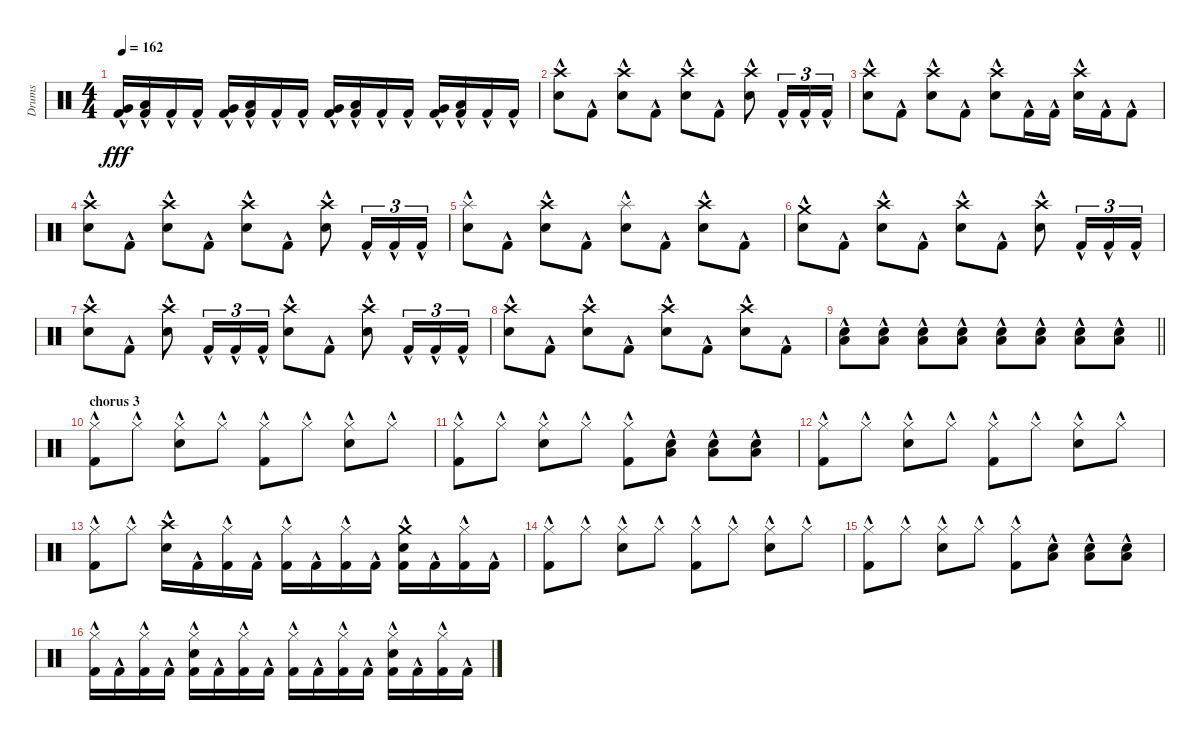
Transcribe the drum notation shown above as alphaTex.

\track ("Drums" "Drums") {instrument percussion}
\staff {score}
\articulation defaults
\ts (4 4)
\tempo 162
\clef neutral
\ks c
("Kick (hit) 2"{hac} "Very Low Tom (hit)"{hac}).16{dy fff} ("Kick (hit) 2"{hac} "Low Floor Tom (hit)"{hac}).16 "Kick (hit) 2"{hac}.16 "Kick (hit) 2"{hac}.16 ("Kick (hit) 2"{hac} "Very Low Tom (hit)"{hac}).16 ("Kick (hit) 2"{hac} "Low Floor Tom (hit)"{hac}).16 "Kick (hit) 2"{hac}.16 "Kick (hit) 2"{hac}.16 ("Kick (hit) 2"{hac} "Very Low Tom (hit)"{hac}).16 ("Kick (hit) 2"{hac} "Low Floor Tom (hit)"{hac}).16 "Kick (hit) 2"{hac}.16 "Kick (hit) 2"{hac}.16 ("Kick (hit) 2"{hac} "Very Low Tom (hit)"{hac}).16 ("Kick (hit) 2"{hac} "Low Floor Tom (hit)"{hac}).16 "Kick (hit) 2"{hac}.16 "Kick (hit) 2"{hac}.16 |
("Crash high (hit)"{hac} "Electric Snare (hit)"{hac}).8 "Kick (hit) 2"{hac}.8 ("Crash high (hit)"{hac} "Electric Snare (hit)"{hac}).8 "Kick (hit) 2"{hac}.8 ("Crash high (hit)"{hac} "Electric Snare (hit)"{hac}).8 "Kick (hit) 2"{hac}.8 ("Crash high (hit)"{hac} "Electric Snare (hit)"{hac}).8 "Kick (hit) 2"{hac}.16{tu (3 2)} "Kick (hit) 2"{hac}.16{tu (3 2)} "Kick (hit) 2"{hac}.16{tu (3 2)} |
("Crash high (hit)"{hac} "Electric Snare (hit)"{hac}).8 "Kick (hit) 2"{hac}.8 ("Crash high (hit)"{hac} "Electric Snare (hit)"{hac}).8 "Kick (hit) 2"{hac}.8 ("Crash high (hit)"{hac} "Electric Snare (hit)"{hac}).8 "Kick (hit) 2"{hac}.16 "Kick (hit) 2"{hac}.16 ("Crash high (hit)"{hac} "Electric Snare (hit)"{hac}).16 "Kick (hit) 2"{hac}.16 "Kick (hit) 2"{hac}.8 |
("Crash high (hit)"{hac} "Electric Snare (hit)"{hac}).8 "Kick (hit) 2"{hac}.8 ("Crash high (hit)"{hac} "Electric Snare (hit)"{hac}).8 "Kick (hit) 2"{hac}.8 ("Crash high (hit)"{hac} "Electric Snare (hit)"{hac}).8 "Kick (hit) 2"{hac}.8 ("Crash high (hit)"{hac} "Electric Snare (hit)"{hac}).8 "Kick (hit) 2"{hac}.16{tu (3 2)} "Kick (hit) 2"{hac}.16{tu (3 2)} "Kick (hit) 2"{hac}.16{tu (3 2)} |
("Electric Snare (hit)"{hac} "Splash (hit)"{hac}).8 "Kick (hit) 2"{hac}.8 ("Crash high (hit)"{hac} "Electric Snare (hit)"{hac}).8 "Kick (hit) 2"{hac}.8 ("Electric Snare (hit)"{hac} "Splash (hit)"{hac}).8 "Kick (hit) 2"{hac}.8 ("Crash high (hit)"{hac} "Electric Snare (hit)"{hac}).8 "Kick (hit) 2"{hac}.8 |
("Electric Snare (hit)"{hac} "Crash medium (hit)"{hac}).8 "Kick (hit) 2"{hac}.8 ("Crash high (hit)"{hac} "Electric Snare (hit)"{hac}).8 "Kick (hit) 2"{hac}.8 ("Crash high (hit)"{hac} "Electric Snare (hit)"{hac}).8 "Kick (hit) 2"{hac}.8 ("Crash high (hit)"{hac} "Electric Snare (hit)"{hac}).8 "Kick (hit) 2"{hac}.16{tu (3 2)} "Kick (hit) 2"{hac}.16{tu (3 2)} "Kick (hit) 2"{hac}.16{tu (3 2)} |
("Crash high (hit)"{hac} "Electric Snare (hit)"{hac}).8 "Kick (hit) 2"{hac}.8 ("Crash high (hit)"{hac} "Electric Snare (hit)"{hac}).8 "Kick (hit) 2"{hac}.16{tu (3 2)} "Kick (hit) 2"{hac}.16{tu (3 2)} "Kick (hit) 2"{hac}.16{tu (3 2)} ("Crash high (hit)"{hac} "Electric Snare (hit)"{hac}).8 "Kick (hit) 2"{hac}.8 ("Crash high (hit)"{hac} "Electric Snare (hit)"{hac}).8 "Kick (hit) 2"{hac}.16{tu (3 2)} "Kick (hit) 2"{hac}.16{tu (3 2)} "Kick (hit) 2"{hac}.16{tu (3 2)} |
("Crash high (hit)"{hac} "Electric Snare (hit)"{hac}).8 "Kick (hit) 2"{hac}.8 ("Crash high (hit)"{hac} "Electric Snare (hit)"{hac}).8 "Kick (hit) 2"{hac}.8 ("Crash high (hit)"{hac} "Electric Snare (hit)"{hac}).8 "Kick (hit) 2"{hac}.8 ("Crash high (hit)"{hac} "Electric Snare (hit)"{hac}).8 "Kick (hit) 2"{hac}.8 |
\barLineRight lightlight
("Electric Snare (hit)"{hac} "Low Floor Tom (hit)"{hac}).8 ("Electric Snare (hit)"{hac} "Low Floor Tom (hit)"{hac}).8 ("Electric Snare (hit)"{hac} "Low Floor Tom (hit)"{hac}).8 ("Electric Snare (hit)"{hac} "Low Floor Tom (hit)"{hac}).8 ("Electric Snare (hit)"{hac} "Low Floor Tom (hit)"{hac}).8 ("Electric Snare (hit)"{hac} "Low Floor Tom (hit)"{hac}).8 ("Electric Snare (hit)"{hac} "Low Floor Tom (hit)"{hac}).8 ("Electric Snare (hit)"{hac} "Low Floor Tom (hit)"{hac}).8 |
\section ("" "chorus 3")
("Hi-Hat (closed)"{hac} "Kick (hit) 2"{hac}).8 "Hi-Hat (closed)"{hac}.8 ("Hi-Hat (closed)"{hac} "Electric Snare (hit)"{hac}).8 "Hi-Hat (closed)"{hac}.8 ("Hi-Hat (closed)"{hac} "Kick (hit) 2"{hac}).8 "Hi-Hat (closed)"{hac}.8 ("Hi-Hat (closed)"{hac} "Electric Snare (hit)"{hac}).8 "Hi-Hat (closed)"{hac}.8 |
("Hi-Hat (closed)"{hac} "Kick (hit) 2"{hac}).8 "Hi-Hat (closed)"{hac}.8 ("Hi-Hat (closed)"{hac} "Electric Snare (hit)"{hac}).8 "Hi-Hat (closed)"{hac}.8 ("Hi-Hat (closed)"{hac} "Kick (hit) 2"{hac}).8 ("Electric Snare (hit)"{hac} "Low Floor Tom (hit)"{hac}).8 ("Electric Snare (hit)"{hac} "Low Floor Tom (hit)"{hac}).8 ("Electric Snare (hit)"{hac} "Low Floor Tom (hit)"{hac}).8 |
("Hi-Hat (closed)"{hac} "Kick (hit) 2"{hac}).8 "Hi-Hat (closed)"{hac}.8 ("Hi-Hat (closed)"{hac} "Electric Snare (hit)"{hac}).8 "Hi-Hat (closed)"{hac}.8 ("Hi-Hat (closed)"{hac} "Kick (hit) 2"{hac}).8 "Hi-Hat (closed)"{hac}.8 ("Hi-Hat (closed)"{hac} "Electric Snare (hit)"{hac}).8 "Hi-Hat (closed)"{hac}.8 |
("Hi-Hat (closed)"{hac} "Kick (hit) 2"{hac}).8 "Hi-Hat (closed)"{hac}.8 ("Electric Snare (hit)"{hac} "Crash high (hit)"{hac}).16 "Kick (hit) 2"{hac}.16 ("Hi-Hat (closed)"{hac} "Kick (hit) 2"{hac}).16 "Kick (hit) 2"{hac}.16 ("Hi-Hat (closed)"{hac} "Kick (hit) 2"{hac}).16 "Kick (hit) 2"{hac}.16 ("Hi-Hat (closed)"{hac} "Kick (hit) 2"{hac}).16 "Kick (hit) 2"{hac}.16 ("Kick (hit) 2"{hac} "Electric Snare (hit)"{hac} "Crash medium (hit)"{hac}).16 "Kick (hit) 2"{hac}.16 ("Hi-Hat (closed)"{hac} "Kick (hit) 2"{hac}).16 "Kick (hit) 2"{hac}.16 |
("Hi-Hat (closed)"{hac} "Kick (hit) 2"{hac}).8 "Hi-Hat (closed)"{hac}.8 ("Hi-Hat (closed)"{hac} "Electric Snare (hit)"{hac}).8 "Hi-Hat (closed)"{hac}.8 ("Hi-Hat (closed)"{hac} "Kick (hit) 2"{hac}).8 "Hi-Hat (closed)"{hac}.8 ("Hi-Hat (closed)"{hac} "Electric Snare (hit)"{hac}).8 "Hi-Hat (closed)"{hac}.8 |
("Hi-Hat (closed)"{hac} "Kick (hit) 2"{hac}).8 "Hi-Hat (closed)"{hac}.8 ("Hi-Hat (closed)"{hac} "Electric Snare (hit)"{hac}).8 "Hi-Hat (closed)"{hac}.8 ("Hi-Hat (closed)"{hac} "Kick (hit) 2"{hac}).8 ("Electric Snare (hit)"{hac} "Low Floor Tom (hit)"{hac}).8 ("Electric Snare (hit)"{hac} "Low Floor Tom (hit)"{hac}).8 ("Electric Snare (hit)"{hac} "Low Floor Tom (hit)"{hac}).8 |
("Hi-Hat (closed)"{hac} "Kick (hit) 2"{hac}).16 "Kick (hit) 2"{hac}.16 ("Hi-Hat (closed)"{hac} "Kick (hit) 2"{hac}).16 "Kick (hit) 2"{hac}.16 ("Hi-Hat (closed)"{hac} "Kick (hit) 2"{hac} "Electric Snare (hit)"{hac}).16 "Kick (hit) 2"{hac}.16 ("Hi-Hat (closed)"{hac} "Kick (hit) 2"{hac}).16 "Kick (hit) 2"{hac}.16 ("Hi-Hat (closed)"{hac} "Kick (hit) 2"{hac}).16 "Kick (hit) 2"{hac}.16 ("Hi-Hat (closed)"{hac} "Kick (hit) 2"{hac}).16 "Kick (hit) 2"{hac}.16 ("Hi-Hat (closed)"{hac} "Kick (hit) 2"{hac} "Electric Snare (hit)"{hac}).16 "Kick (hit) 2"{hac}.16 ("Hi-Hat (closed)"{hac} "Kick (hit) 2"{hac}).16 "Kick (hit) 2"{hac}.16
